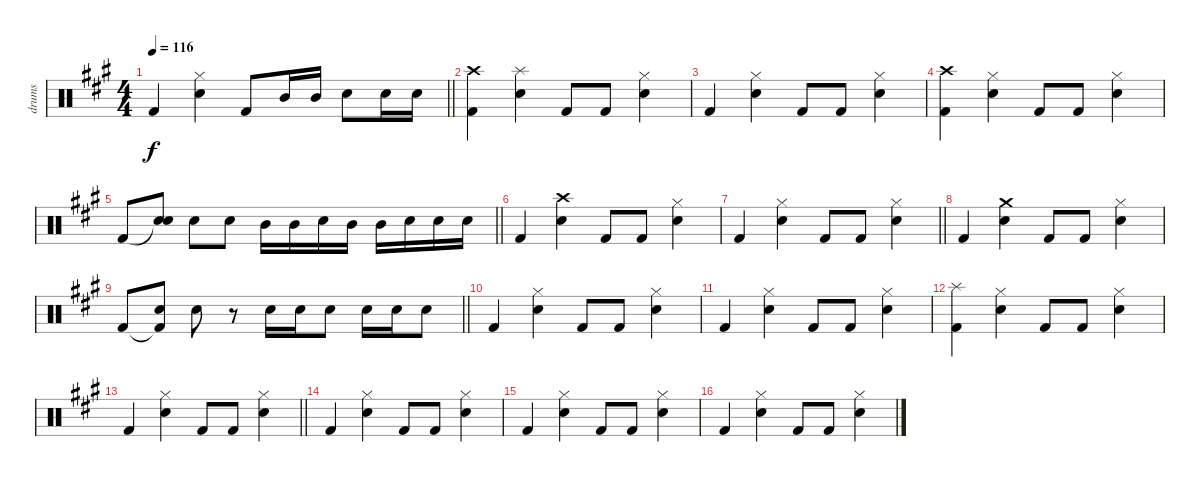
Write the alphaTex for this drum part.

\track ("drums" "drums") {instrument percussion}
\staff {score}
\articulation defaults
\ts (4 4)
\tempo 116
\clef neutral
\barLineRight lightlight
\ks a "Kick (hit) 2".4{dy f}
("Hi-Hat (closed)" "Electric Snare (hit)").4 "Kick (hit) 2".8 "Mid Tom (hit)".16 "Mid Tom (hit)".16 "Electric Snare (hit)".8 "Electric Snare (hit)".16 "Electric Snare (hit)".16 |
("Crash high (hit)" "Kick (hit) 2").4 ("Splash (hit)" "Electric Snare (hit)").4 "Kick (hit) 2".8 "Kick (hit) 2".8 ("Hi-Hat (closed)" "Electric Snare (hit)").4 |
"Kick (hit) 2".4 ("Hi-Hat (closed)" "Electric Snare (hit)").4 "Kick (hit) 2".8 "Kick (hit) 2".8 ("Hi-Hat (closed)" "Electric Snare (hit)").4 |
("Crash high (hit)" "Kick (hit) 2").4 ("Hi-Hat (closed)" "Electric Snare (hit)").4 "Kick (hit) 2".8 "Kick (hit) 2".8 ("Hi-Hat (closed)" "Electric Snare (hit)").4 |
\barLineRight lightlight "Kick (hit) 2".8
("Snare (hit)"{t} "Electric Snare (hit)").8 "Electric Snare (hit)".8 "Electric Snare (hit)".8 "Mid Tom (hit)".16 "Mid Tom (hit)".16 "Electric Snare (hit)".16 "Mid Tom (hit)".16 "Mid Tom (hit)".16 "Electric Snare (hit)".16 "Electric Snare (hit)".16 "Electric Snare (hit)".16 |
"Kick (hit) 2".4 ("Electric Snare (hit)" "Crash high (hit)").4 "Kick (hit) 2".8 "Kick (hit) 2".8 ("Hi-Hat (closed)" "Electric Snare (hit)").4 |
\barLineRight lightlight "Kick (hit) 2".4
("Hi-Hat (closed)" "Electric Snare (hit)").4 "Kick (hit) 2".8 "Kick (hit) 2".8 ("Hi-Hat (closed)" "Electric Snare (hit)").4 |
"Kick (hit) 2".4 ("Electric Snare (hit)" "Crash medium (hit)").4 "Kick (hit) 2".8 "Kick (hit) 2".8 ("Hi-Hat (closed)" "Electric Snare (hit)").4 |
\barLineRight lightlight "Kick (hit) 2".8
("Kick (hit) 2"{t} "Electric Snare (hit)").8 "Electric Snare (hit)".8 r.8 "Electric Snare (hit)".16 "Electric Snare (hit)".16 "Electric Snare (hit)".8 "Electric Snare (hit)".16 "Electric Snare (hit)".16 "Electric Snare (hit)".8 |
"Kick (hit) 2".4 ("Hi-Hat (closed)" "Electric Snare (hit)").4 "Kick (hit) 2".8 "Kick (hit) 2".8 ("Hi-Hat (closed)" "Electric Snare (hit)").4 |
"Kick (hit) 2".4 ("Hi-Hat (closed)" "Electric Snare (hit)").4 "Kick (hit) 2".8 "Kick (hit) 2".8 ("Hi-Hat (closed)" "Electric Snare (hit)").4 |
("Splash (hit)" "Kick (hit) 2").4 ("Hi-Hat (closed)" "Electric Snare (hit)").4 "Kick (hit) 2".8 "Kick (hit) 2".8 ("Hi-Hat (closed)" "Electric Snare (hit)").4 |
\barLineRight lightlight "Kick (hit) 2".4
("Hi-Hat (closed)" "Electric Snare (hit)").4 "Kick (hit) 2".8 "Kick (hit) 2".8 ("Hi-Hat (closed)" "Electric Snare (hit)").4 |
"Kick (hit) 2".4 ("Hi-Hat (closed)" "Electric Snare (hit)").4 "Kick (hit) 2".8 "Kick (hit) 2".8 ("Hi-Hat (closed)" "Electric Snare (hit)").4 |
"Kick (hit) 2".4 ("Hi-Hat (closed)" "Electric Snare (hit)").4 "Kick (hit) 2".8 "Kick (hit) 2".8 ("Hi-Hat (closed)" "Electric Snare (hit)").4 |
"Kick (hit) 2".4 ("Hi-Hat (closed)" "Electric Snare (hit)").4 "Kick (hit) 2".8 "Kick (hit) 2".8 ("Hi-Hat (closed)" "Electric Snare (hit)").4
